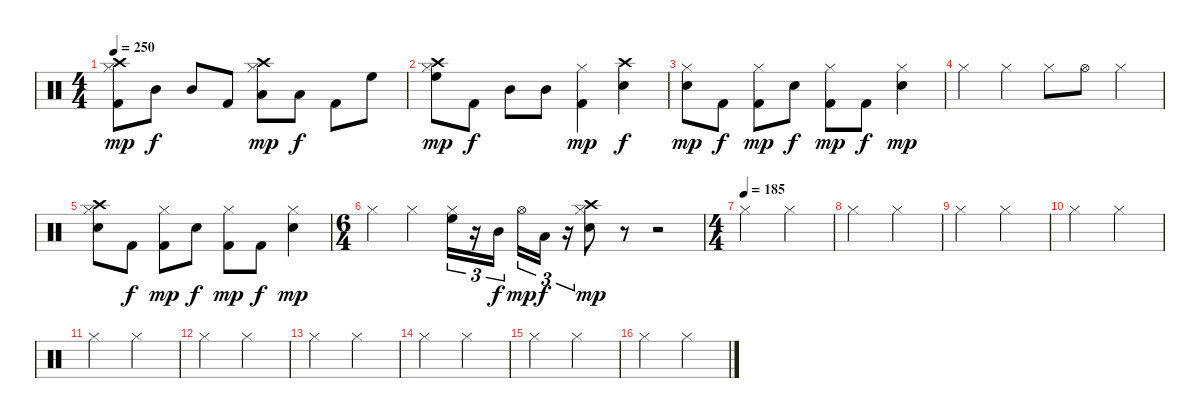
\track "" {instrument percussion}
\staff {score}
\articulation defaults
\ts (4 4)
\tempo 250
\clef neutral
\ks c
("Hi-Hat (closed)" "Kick (hit) 2" "Crash high (hit)").8{dy mp} "Mid Tom (hit)".8{dy f} "Mid Tom (hit)".8 "Kick (hit) 2".8 ("Hi-Hat (closed)" "Low Tom (hit)" "Crash high (hit)").8{dy mp balance 2} "Low Tom (hit)".8{dy f} "Kick (hit) 2".8{balance 8} "High Floor Tom (hit)".8{balance 14} |
("Hi-Hat (closed)" "High Floor Tom (hit)" "Crash high (hit)").8{dy mp} "Kick (hit) 2".8{dy f balance 8} "Mid Tom (hit)".8 "Mid Tom (hit)".8 ("Hi-Hat (closed)" "Kick (hit) 2").4{dy mp} ("Electric Snare (hit)" "Crash high (hit)").4{dy f} |
("Electric Snare (hit)" "Hi-Hat (closed)").8{dy mp} "Kick (hit) 2".8{dy f} ("Kick (hit) 2" "Hi-Hat (closed)").8{dy mp} "Electric Snare (hit)".8{dy f} ("Kick (hit) 2" "Hi-Hat (closed)").8{dy mp} "Kick (hit) 2".8{dy f} ("Electric Snare (hit)" "Hi-Hat (closed)").4{dy mp} |
"Hi-Hat (closed)".4 "Hi-Hat (closed)".4 "Hi-Hat (closed)".8 "Hi-Hat (open)".8 "Hi-Hat (closed)".4 |
("Electric Snare (hit)" "Hi-Hat (closed)" "Crash high (hit)").8 "Kick (hit) 2".8{dy f} ("Kick (hit) 2" "Hi-Hat (closed)").8{dy mp} "Electric Snare (hit)".8{dy f} ("Kick (hit) 2" "Hi-Hat (closed)").8{dy mp} "Kick (hit) 2".8{dy f} ("Electric Snare (hit)" "Hi-Hat (closed)").4{dy mp} |
\ts (6 4)
"Hi-Hat (closed)".4 "Hi-Hat (closed)".4 ("Hi-Hat (closed)" "High Floor Tom (hit)").16{tu (3 2) balance 15} r.16{tu (3 2)} "Mid Tom (hit)".16{tu (3 2) dy f balance 8} "Hi-Hat (open)".16{tu (3 2) dy mp} "Low Tom (hit)".16{tu (3 2) dy f balance 1} r.16{tu (3 2)} ("Hi-Hat (closed)" "Crash high (hit)" "Electric Snare (hit)").8{dy mp balance 8} r.8 r.2 |
\ts (4 4)
\tempo (185)
"Hi-Hat (closed)".2 "Hi-Hat (closed)".2 |
"Hi-Hat (closed)".2 "Hi-Hat (closed)".2 |
"Hi-Hat (closed)".2 "Hi-Hat (closed)".2 |
"Hi-Hat (closed)".2 "Hi-Hat (closed)".2 |
"Hi-Hat (closed)".2 "Hi-Hat (closed)".2 |
"Hi-Hat (closed)".2 "Hi-Hat (closed)".2 |
"Hi-Hat (closed)".2 "Hi-Hat (closed)".2 |
"Hi-Hat (closed)".2 "Hi-Hat (closed)".2 |
"Hi-Hat (closed)".2 "Hi-Hat (closed)".2 |
"Hi-Hat (closed)".2 "Hi-Hat (closed)".2
